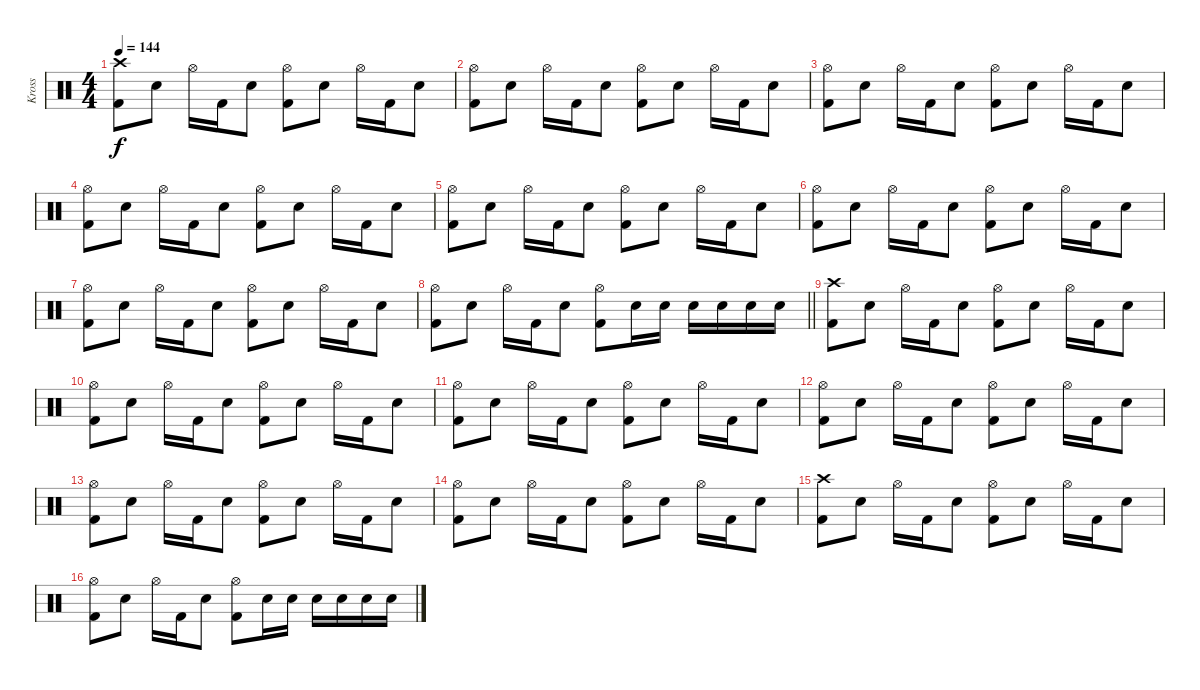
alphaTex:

\track ("Kross" "Kross") {instrument percussion}
\staff {score}
\articulation defaults
\ts (4 4)
\tempo 144
\clef neutral
\ks c
("Crash high (hit)" "Kick (hit) 2").8{dy f} "Electric Snare (hit)".8 "Hi-Hat (open)".16 "Kick (hit) 2".16 "Electric Snare (hit)".8 ("Hi-Hat (open)" "Kick (hit) 2").8 "Electric Snare (hit)".8 "Hi-Hat (open)".16 "Kick (hit) 2".16 "Electric Snare (hit)".8 |
("Hi-Hat (open)" "Kick (hit) 2").8 "Electric Snare (hit)".8 "Hi-Hat (open)".16 "Kick (hit) 2".16 "Electric Snare (hit)".8 ("Hi-Hat (open)" "Kick (hit) 2").8 "Electric Snare (hit)".8 "Hi-Hat (open)".16 "Kick (hit) 2".16 "Electric Snare (hit)".8 |
("Hi-Hat (open)" "Kick (hit) 2").8 "Electric Snare (hit)".8 "Hi-Hat (open)".16 "Kick (hit) 2".16 "Electric Snare (hit)".8 ("Hi-Hat (open)" "Kick (hit) 2").8 "Electric Snare (hit)".8 "Hi-Hat (open)".16 "Kick (hit) 2".16 "Electric Snare (hit)".8 |
("Hi-Hat (open)" "Kick (hit) 2").8 "Electric Snare (hit)".8 "Hi-Hat (open)".16 "Kick (hit) 2".16 "Electric Snare (hit)".8 ("Hi-Hat (open)" "Kick (hit) 2").8 "Electric Snare (hit)".8 "Hi-Hat (open)".16 "Kick (hit) 2".16 "Electric Snare (hit)".8 |
("Hi-Hat (open)" "Kick (hit) 2").8 "Electric Snare (hit)".8 "Hi-Hat (open)".16 "Kick (hit) 2".16 "Electric Snare (hit)".8 ("Hi-Hat (open)" "Kick (hit) 2").8 "Electric Snare (hit)".8 "Hi-Hat (open)".16 "Kick (hit) 2".16 "Electric Snare (hit)".8 |
("Hi-Hat (open)" "Kick (hit) 2").8 "Electric Snare (hit)".8 "Hi-Hat (open)".16 "Kick (hit) 2".16 "Electric Snare (hit)".8 ("Hi-Hat (open)" "Kick (hit) 2").8 "Electric Snare (hit)".8 "Hi-Hat (open)".16 "Kick (hit) 2".16 "Electric Snare (hit)".8 |
("Hi-Hat (open)" "Kick (hit) 2").8 "Electric Snare (hit)".8 "Hi-Hat (open)".16 "Kick (hit) 2".16 "Electric Snare (hit)".8 ("Hi-Hat (open)" "Kick (hit) 2").8 "Electric Snare (hit)".8 "Hi-Hat (open)".16 "Kick (hit) 2".16 "Electric Snare (hit)".8 |
\barLineRight lightlight
("Hi-Hat (open)" "Kick (hit) 2").8 "Electric Snare (hit)".8 "Hi-Hat (open)".16 "Kick (hit) 2".16 "Electric Snare (hit)".8 ("Hi-Hat (open)" "Kick (hit) 2").8 "Electric Snare (hit)".16 "Electric Snare (hit)".16 "Electric Snare (hit)".16 "Electric Snare (hit)".16 "Electric Snare (hit)".16 "Electric Snare (hit)".16 |
("Crash high (hit)" "Kick (hit) 2").8 "Electric Snare (hit)".8 "Hi-Hat (open)".16 "Kick (hit) 2".16 "Electric Snare (hit)".8 ("Hi-Hat (open)" "Kick (hit) 2").8 "Electric Snare (hit)".8 "Hi-Hat (open)".16 "Kick (hit) 2".16 "Electric Snare (hit)".8 |
("Hi-Hat (open)" "Kick (hit) 2").8 "Electric Snare (hit)".8 "Hi-Hat (open)".16 "Kick (hit) 2".16 "Electric Snare (hit)".8 ("Hi-Hat (open)" "Kick (hit) 2").8 "Electric Snare (hit)".8 "Hi-Hat (open)".16 "Kick (hit) 2".16 "Electric Snare (hit)".8 |
("Hi-Hat (open)" "Kick (hit) 2").8 "Electric Snare (hit)".8 "Hi-Hat (open)".16 "Kick (hit) 2".16 "Electric Snare (hit)".8 ("Hi-Hat (open)" "Kick (hit) 2").8 "Electric Snare (hit)".8 "Hi-Hat (open)".16 "Kick (hit) 2".16 "Electric Snare (hit)".8 |
("Hi-Hat (open)" "Kick (hit) 2").8 "Electric Snare (hit)".8 "Hi-Hat (open)".16 "Kick (hit) 2".16 "Electric Snare (hit)".8 ("Hi-Hat (open)" "Kick (hit) 2").8 "Electric Snare (hit)".8 "Hi-Hat (open)".16 "Kick (hit) 2".16 "Electric Snare (hit)".8 |
("Hi-Hat (open)" "Kick (hit) 2").8 "Electric Snare (hit)".8 "Hi-Hat (open)".16 "Kick (hit) 2".16 "Electric Snare (hit)".8 ("Hi-Hat (open)" "Kick (hit) 2").8 "Electric Snare (hit)".8 "Hi-Hat (open)".16 "Kick (hit) 2".16 "Electric Snare (hit)".8 |
("Hi-Hat (open)" "Kick (hit) 2").8 "Electric Snare (hit)".8 "Hi-Hat (open)".16 "Kick (hit) 2".16 "Electric Snare (hit)".8 ("Hi-Hat (open)" "Kick (hit) 2").8 "Electric Snare (hit)".8 "Hi-Hat (open)".16 "Kick (hit) 2".16 "Electric Snare (hit)".8 |
("Crash high (hit)" "Kick (hit) 2").8 "Electric Snare (hit)".8 "Hi-Hat (open)".16 "Kick (hit) 2".16 "Electric Snare (hit)".8 ("Hi-Hat (open)" "Kick (hit) 2").8 "Electric Snare (hit)".8 "Hi-Hat (open)".16 "Kick (hit) 2".16 "Electric Snare (hit)".8 |
("Hi-Hat (open)" "Kick (hit) 2").8 "Electric Snare (hit)".8 "Hi-Hat (open)".16 "Kick (hit) 2".16 "Electric Snare (hit)".8 ("Hi-Hat (open)" "Kick (hit) 2").8 "Electric Snare (hit)".16 "Electric Snare (hit)".16 "Electric Snare (hit)".16 "Electric Snare (hit)".16 "Electric Snare (hit)".16 "Electric Snare (hit)".16
